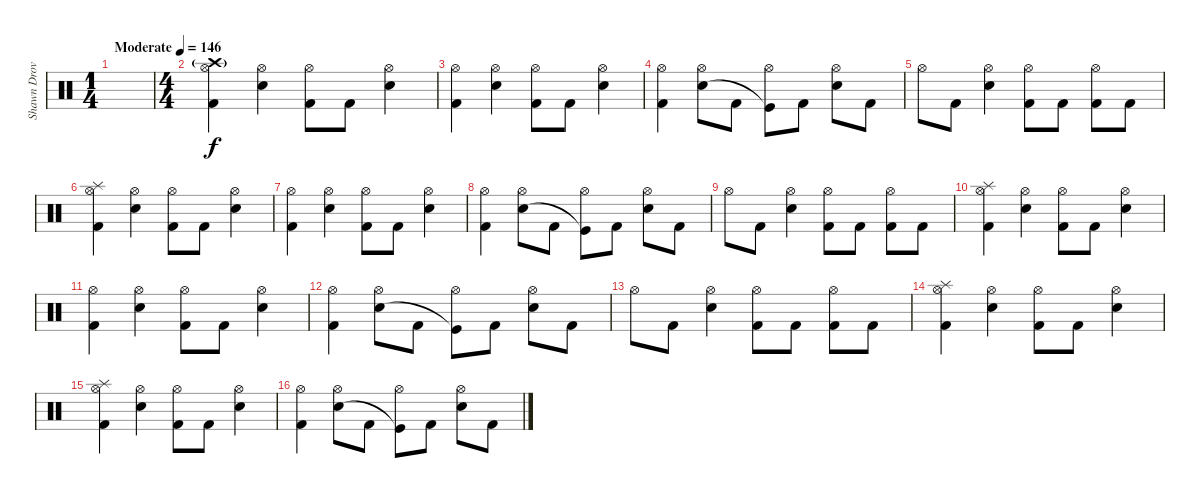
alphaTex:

\track ("Shawn Drover" "Shawn Drov") {instrument percussion}
\staff {score}
\articulation defaults
\ts (1 4)
\tempo (146 "Moderate")
\clef neutral
\ks c
|
\ts (4 4)
("Hi-Hat (open)" "Crash high (hit)"{g} "Kick (hit) 2").4 ("Hi-Hat (open)" "Snare (hit) 2").4{dy f} ("Hi-Hat (open)" "Kick (hit) 2").8 "Kick (hit) 2".8 ("Hi-Hat (open)" "Snare (hit) 2").4 |
("Hi-Hat (open)" "Kick (hit) 2").4 ("Hi-Hat (open)" "Snare (hit) 2").4 ("Hi-Hat (open)" "Kick (hit) 2").8 "Kick (hit) 2".8 ("Hi-Hat (open)" "Snare (hit) 2").4 |
("Hi-Hat (open)" "Kick (hit) 2").4 ("Hi-Hat (open)" "Snare (hit) 2").8 "Kick (hit) 2".8 ("Hi-Hat (open)" "Kick (hit)"{t}).8 "Kick (hit) 2".8 ("Hi-Hat (open)" "Snare (hit) 2").8 "Kick (hit) 2".8 |
"Hi-Hat (open)".8 "Kick (hit) 2".8 ("Hi-Hat (open)" "Snare (hit) 2").4 ("Hi-Hat (open)" "Kick (hit) 2").8 "Kick (hit) 2".8 ("Hi-Hat (open)" "Kick (hit) 2").8 "Kick (hit) 2".8 |
("Hi-Hat (open)" "Splash (hit)" "Kick (hit) 2").4 ("Hi-Hat (open)" "Snare (hit) 2").4 ("Hi-Hat (open)" "Kick (hit) 2").8 "Kick (hit) 2".8 ("Hi-Hat (open)" "Snare (hit) 2").4 |
("Hi-Hat (open)" "Kick (hit) 2").4 ("Hi-Hat (open)" "Snare (hit) 2").4 ("Hi-Hat (open)" "Kick (hit) 2").8 "Kick (hit) 2".8 ("Hi-Hat (open)" "Snare (hit) 2").4 |
("Hi-Hat (open)" "Kick (hit) 2").4 ("Hi-Hat (open)" "Snare (hit) 2").8 "Kick (hit) 2".8 ("Hi-Hat (open)" "Kick (hit)"{t}).8 "Kick (hit) 2".8 ("Hi-Hat (open)" "Snare (hit) 2").8 "Kick (hit) 2".8 |
"Hi-Hat (open)".8 "Kick (hit) 2".8 ("Hi-Hat (open)" "Snare (hit) 2").4 ("Hi-Hat (open)" "Kick (hit) 2").8 "Kick (hit) 2".8 ("Hi-Hat (open)" "Kick (hit) 2").8 "Kick (hit) 2".8 |
("Hi-Hat (open)" "Splash (hit)" "Kick (hit) 2").4 ("Hi-Hat (open)" "Snare (hit) 2").4 ("Hi-Hat (open)" "Kick (hit) 2").8 "Kick (hit) 2".8 ("Hi-Hat (open)" "Snare (hit) 2").4 |
("Hi-Hat (open)" "Kick (hit) 2").4 ("Hi-Hat (open)" "Snare (hit) 2").4 ("Hi-Hat (open)" "Kick (hit) 2").8 "Kick (hit) 2".8 ("Hi-Hat (open)" "Snare (hit) 2").4 |
("Hi-Hat (open)" "Kick (hit) 2").4 ("Hi-Hat (open)" "Snare (hit) 2").8 "Kick (hit) 2".8 ("Hi-Hat (open)" "Kick (hit)"{t}).8 "Kick (hit) 2".8 ("Hi-Hat (open)" "Snare (hit) 2").8 "Kick (hit) 2".8 |
"Hi-Hat (open)".8 "Kick (hit) 2".8 ("Hi-Hat (open)" "Snare (hit) 2").4 ("Hi-Hat (open)" "Kick (hit) 2").8 "Kick (hit) 2".8 ("Hi-Hat (open)" "Kick (hit) 2").8 "Kick (hit) 2".8 |
("Hi-Hat (open)" "Splash (hit)" "Kick (hit) 2").4 ("Hi-Hat (open)" "Snare (hit) 2").4 ("Hi-Hat (open)" "Kick (hit) 2").8 "Kick (hit) 2".8 ("Hi-Hat (open)" "Snare (hit) 2").4 |
("Hi-Hat (open)" "Splash (hit)" "Kick (hit) 2").4 ("Hi-Hat (open)" "Snare (hit) 2").4 ("Hi-Hat (open)" "Kick (hit) 2").8 "Kick (hit) 2".8 ("Hi-Hat (open)" "Snare (hit) 2").4 |
("Hi-Hat (open)" "Kick (hit) 2").4 ("Hi-Hat (open)" "Snare (hit) 2").8 "Kick (hit) 2".8 ("Hi-Hat (open)" "Kick (hit)"{t}).8 "Kick (hit) 2".8 ("Hi-Hat (open)" "Snare (hit) 2").8 "Kick (hit) 2".8
